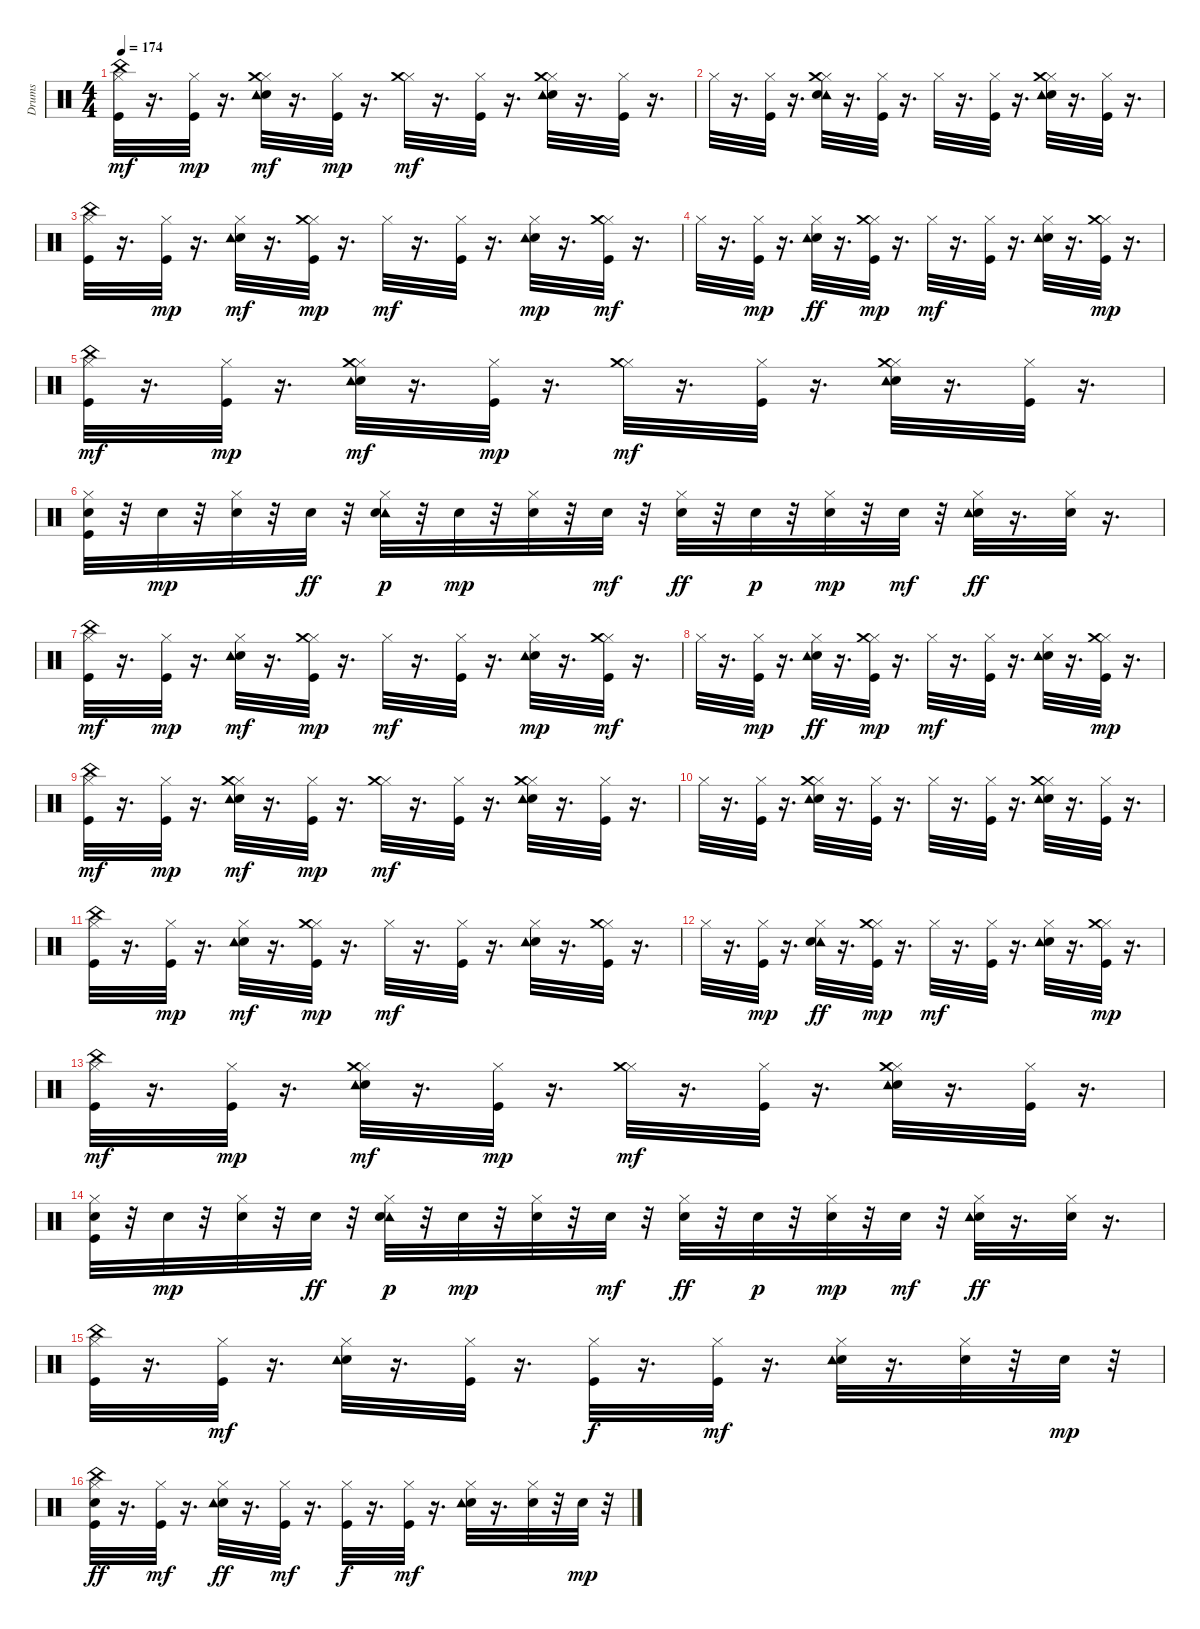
\track ("Drums" "Drums") {instrument percussion}
\staff {score}
\articulation defaults
\ts (4 4)
\tempo 174
\clef neutral
\ks c
("Kick (hit)" "Hi-Hat (closed)" "China (hit)").32{dy mf} r.16{d} ("Kick (hit)" "Hi-Hat (closed)").32{dy mp} r.16{d} ("Hi-Hat (closed)" "Electric Snare (hit)" "Crash medium (hit)" "Tambourine (hit)").32{dy mf} r.16{d} ("Kick (hit)" "Hi-Hat (closed)").32{dy mp} r.16{d} ("Hi-Hat (closed)" "Crash medium (hit)").32{dy mf} r.16{d} ("Kick (hit)" "Hi-Hat (closed)").32 r.16{d} ("Hi-Hat (closed)" "Electric Snare (hit)" "Crash medium (hit)" "Tambourine (hit)").32 r.16{d} ("Kick (hit)" "Hi-Hat (closed)").32 r.16{d} |
"Hi-Hat (closed)".32 r.16{d} ("Kick (hit)" "Hi-Hat (closed)").32 r.16{d} ("Tambourine (hit)" "Hi-Hat (closed)" "Electric Snare (hit)" "Crash medium (hit)").32 r.16{d} ("Kick (hit)" "Hi-Hat (closed)").32 r.16{d} "Hi-Hat (closed)".32 r.16{d} ("Kick (hit)" "Hi-Hat (closed)").32 r.16{d} ("Hi-Hat (closed)" "Electric Snare (hit)" "Crash medium (hit)" "Tambourine (hit)").32 r.16{d} ("Kick (hit)" "Hi-Hat (closed)").32 r.16{d} |
("Kick (hit)" "Hi-Hat (closed)" "China (hit)").32 r.16{d} ("Kick (hit)" "Hi-Hat (closed)").32{dy mp} r.16{d} ("Hi-Hat (closed)" "Electric Snare (hit)" "Tambourine (hit)").32{dy mf} r.16{d} ("Kick (hit)" "Hi-Hat (closed)" "Crash medium (hit)").32{dy mp} r.16{d} "Hi-Hat (closed)".32{dy mf} r.16{d} ("Kick (hit)" "Hi-Hat (closed)").32 r.16{d} ("Hi-Hat (closed)" "Electric Snare (hit)" "Tambourine (hit)").32{dy mp} r.16{d} ("Kick (hit)" "Hi-Hat (closed)" "Crash medium (hit)").32{dy mf} r.16{d} |
"Hi-Hat (closed)".32 r.16{d} ("Kick (hit)" "Hi-Hat (closed)").32{dy mp} r.16{d} ("Hi-Hat (closed)" "Electric Snare (hit)" "Tambourine (hit)").32{dy ff} r.16{d} ("Kick (hit)" "Hi-Hat (closed)" "Crash medium (hit)").32{dy mp} r.16{d} "Hi-Hat (closed)".32{dy mf} r.16{d} ("Kick (hit)" "Hi-Hat (closed)").32 r.16{d} ("Hi-Hat (closed)" "Electric Snare (hit)" "Tambourine (hit)").32 r.16{d} ("Kick (hit)" "Hi-Hat (closed)" "Crash medium (hit)").32{dy mp} r.16{d} |
("Kick (hit)" "Hi-Hat (closed)" "China (hit)").32{dy mf} r.16{d} ("Kick (hit)" "Hi-Hat (closed)").32{dy mp} r.16{d} ("Hi-Hat (closed)" "Electric Snare (hit)" "Crash medium (hit)" "Tambourine (hit)").32{dy mf} r.16{d} ("Kick (hit)" "Hi-Hat (closed)").32{dy mp} r.16{d} ("Hi-Hat (closed)" "Crash medium (hit)").32{dy mf} r.16{d} ("Kick (hit)" "Hi-Hat (closed)").32 r.16{d} ("Hi-Hat (closed)" "Electric Snare (hit)" "Crash medium (hit)" "Tambourine (hit)").32 r.16{d} ("Kick (hit)" "Hi-Hat (closed)").32 r.16{d} |
("Kick (hit)" "Hi-Hat (closed)" "Electric Snare (hit)").32 r.32 "Electric Snare (hit)".32{dy mp} r.32 ("Hi-Hat (closed)" "Electric Snare (hit)").32 r.32 "Electric Snare (hit)".32{dy ff} r.32 ("Tambourine (hit)" "Hi-Hat (closed)" "Electric Snare (hit)").32{dy p} r.32 "Electric Snare (hit)".32{dy mp} r.32 ("Hi-Hat (closed)" "Electric Snare (hit)").32 r.32 "Electric Snare (hit)".32{dy mf} r.32 ("Hi-Hat (closed)" "Electric Snare (hit)").32{dy ff} r.32 "Electric Snare (hit)".32{dy p} r.32 ("Hi-Hat (closed)" "Electric Snare (hit)").32{dy mp} r.32 "Electric Snare (hit)".32{dy mf} r.32 ("Hi-Hat (closed)" "Electric Snare (hit)" "Tambourine (hit)").32{dy ff} r.16{d} ("Hi-Hat (closed)" "Electric Snare (hit)").32 r.16{d} |
("Kick (hit)" "Hi-Hat (closed)" "China (hit)").32{dy mf} r.16{d} ("Kick (hit)" "Hi-Hat (closed)").32{dy mp} r.16{d} ("Hi-Hat (closed)" "Electric Snare (hit)" "Tambourine (hit)").32{dy mf} r.16{d} ("Kick (hit)" "Hi-Hat (closed)" "Crash medium (hit)").32{dy mp} r.16{d} "Hi-Hat (closed)".32{dy mf} r.16{d} ("Kick (hit)" "Hi-Hat (closed)").32 r.16{d} ("Hi-Hat (closed)" "Electric Snare (hit)" "Tambourine (hit)").32{dy mp} r.16{d} ("Kick (hit)" "Hi-Hat (closed)" "Crash medium (hit)").32{dy mf} r.16{d} |
"Hi-Hat (closed)".32 r.16{d} ("Kick (hit)" "Hi-Hat (closed)").32{dy mp} r.16{d} ("Hi-Hat (closed)" "Electric Snare (hit)" "Tambourine (hit)").32{dy ff} r.16{d} ("Kick (hit)" "Hi-Hat (closed)" "Crash medium (hit)").32{dy mp} r.16{d} "Hi-Hat (closed)".32{dy mf} r.16{d} ("Kick (hit)" "Hi-Hat (closed)").32 r.16{d} ("Hi-Hat (closed)" "Electric Snare (hit)" "Tambourine (hit)").32 r.16{d} ("Kick (hit)" "Hi-Hat (closed)" "Crash medium (hit)").32{dy mp} r.16{d} |
("Kick (hit)" "Hi-Hat (closed)" "China (hit)").32{dy mf} r.16{d} ("Kick (hit)" "Hi-Hat (closed)").32{dy mp} r.16{d} ("Hi-Hat (closed)" "Electric Snare (hit)" "Crash medium (hit)" "Tambourine (hit)").32{dy mf} r.16{d} ("Kick (hit)" "Hi-Hat (closed)").32{dy mp} r.16{d} ("Hi-Hat (closed)" "Crash medium (hit)").32{dy mf} r.16{d} ("Kick (hit)" "Hi-Hat (closed)").32 r.16{d} ("Hi-Hat (closed)" "Electric Snare (hit)" "Crash medium (hit)" "Tambourine (hit)").32 r.16{d} ("Kick (hit)" "Hi-Hat (closed)").32 r.16{d} |
"Hi-Hat (closed)".32 r.16{d} ("Kick (hit)" "Hi-Hat (closed)").32 r.16{d} ("Hi-Hat (closed)" "Electric Snare (hit)" "Crash medium (hit)" "Tambourine (hit)").32 r.16{d} ("Kick (hit)" "Hi-Hat (closed)").32 r.16{d} "Hi-Hat (closed)".32 r.16{d} ("Kick (hit)" "Hi-Hat (closed)").32 r.16{d} ("Hi-Hat (closed)" "Electric Snare (hit)" "Crash medium (hit)" "Tambourine (hit)").32 r.16{d} ("Kick (hit)" "Hi-Hat (closed)").32 r.16{d} |
("Kick (hit)" "Hi-Hat (closed)" "China (hit)").32 r.16{d} ("Kick (hit)" "Hi-Hat (closed)").32{dy mp} r.16{d} ("Hi-Hat (closed)" "Electric Snare (hit)" "Tambourine (hit)").32{dy mf} r.16{d} ("Kick (hit)" "Hi-Hat (closed)" "Crash medium (hit)").32{dy mp} r.16{d} "Hi-Hat (closed)".32{dy mf} r.16{d} ("Kick (hit)" "Hi-Hat (closed)").32 r.16{d} ("Hi-Hat (closed)" "Electric Snare (hit)" "Tambourine (hit)").32 r.16{d} ("Kick (hit)" "Hi-Hat (closed)" "Crash medium (hit)").32 r.16{d} |
"Hi-Hat (closed)".32 r.16{d} ("Kick (hit)" "Hi-Hat (closed)").32{dy mp} r.16{d} ("Tambourine (hit)" "Hi-Hat (closed)" "Electric Snare (hit)").32{dy ff} r.16{d} ("Kick (hit)" "Hi-Hat (closed)" "Crash medium (hit)").32{dy mp} r.16{d} "Hi-Hat (closed)".32{dy mf} r.16{d} ("Kick (hit)" "Hi-Hat (closed)").32 r.16{d} ("Hi-Hat (closed)" "Electric Snare (hit)" "Tambourine (hit)").32 r.16{d} ("Kick (hit)" "Hi-Hat (closed)" "Crash medium (hit)").32{dy mp} r.16{d} |
("Kick (hit)" "Hi-Hat (closed)" "China (hit)").32{dy mf} r.16{d} ("Kick (hit)" "Hi-Hat (closed)").32{dy mp} r.16{d} ("Hi-Hat (closed)" "Electric Snare (hit)" "Crash medium (hit)" "Tambourine (hit)").32{dy mf} r.16{d} ("Kick (hit)" "Hi-Hat (closed)").32{dy mp} r.16{d} ("Hi-Hat (closed)" "Crash medium (hit)").32{dy mf} r.16{d} ("Kick (hit)" "Hi-Hat (closed)").32 r.16{d} ("Hi-Hat (closed)" "Electric Snare (hit)" "Crash medium (hit)" "Tambourine (hit)").32 r.16{d} ("Kick (hit)" "Hi-Hat (closed)").32 r.16{d} |
("Kick (hit)" "Hi-Hat (closed)" "Electric Snare (hit)").32 r.32 "Electric Snare (hit)".32{dy mp} r.32 ("Hi-Hat (closed)" "Electric Snare (hit)").32 r.32 "Electric Snare (hit)".32{dy ff} r.32 ("Tambourine (hit)" "Hi-Hat (closed)" "Electric Snare (hit)").32{dy p} r.32 "Electric Snare (hit)".32{dy mp} r.32 ("Hi-Hat (closed)" "Electric Snare (hit)").32 r.32 "Electric Snare (hit)".32{dy mf} r.32 ("Hi-Hat (closed)" "Electric Snare (hit)").32{dy ff} r.32 "Electric Snare (hit)".32{dy p} r.32 ("Hi-Hat (closed)" "Electric Snare (hit)").32{dy mp} r.32 "Electric Snare (hit)".32{dy mf} r.32 ("Hi-Hat (closed)" "Electric Snare (hit)" "Tambourine (hit)").32{dy ff} r.16{d} ("Hi-Hat (closed)" "Electric Snare (hit)").32 r.16{d} |
("Kick (hit)" "Hi-Hat (closed)" "China (hit)").32 r.16{d} ("Kick (hit)" "Hi-Hat (closed)").32{dy mf} r.16{d} ("Hi-Hat (closed)" "Electric Snare (hit)" "Tambourine (hit)").32 r.16{d} ("Kick (hit)" "Hi-Hat (closed)").32 r.16{d} ("Kick (hit)" "Hi-Hat (closed)").32{dy f} r.16{d} ("Kick (hit)" "Hi-Hat (closed)").32{dy mf} r.16{d} ("Hi-Hat (closed)" "Electric Snare (hit)" "Tambourine (hit)").32 r.16{d} ("Hi-Hat (closed)" "Electric Snare (hit)").32 r.32 "Electric Snare (hit)".32{dy mp} r.32 |
("Kick (hit)" "Hi-Hat (closed)" "Electric Snare (hit)" "China (hit)").32{dy ff} r.16{d} ("Kick (hit)" "Hi-Hat (closed)").32{dy mf} r.16{d} ("Hi-Hat (closed)" "Electric Snare (hit)" "Tambourine (hit)").32{dy ff} r.16{d} ("Kick (hit)" "Hi-Hat (closed)").32{dy mf} r.16{d} ("Kick (hit)" "Hi-Hat (closed)").32{dy f} r.16{d} ("Kick (hit)" "Hi-Hat (closed)").32{dy mf} r.16{d} ("Hi-Hat (closed)" "Electric Snare (hit)" "Tambourine (hit)").32 r.16{d} ("Hi-Hat (closed)" "Electric Snare (hit)").32 r.32 "Electric Snare (hit)".32{dy mp} r.32
